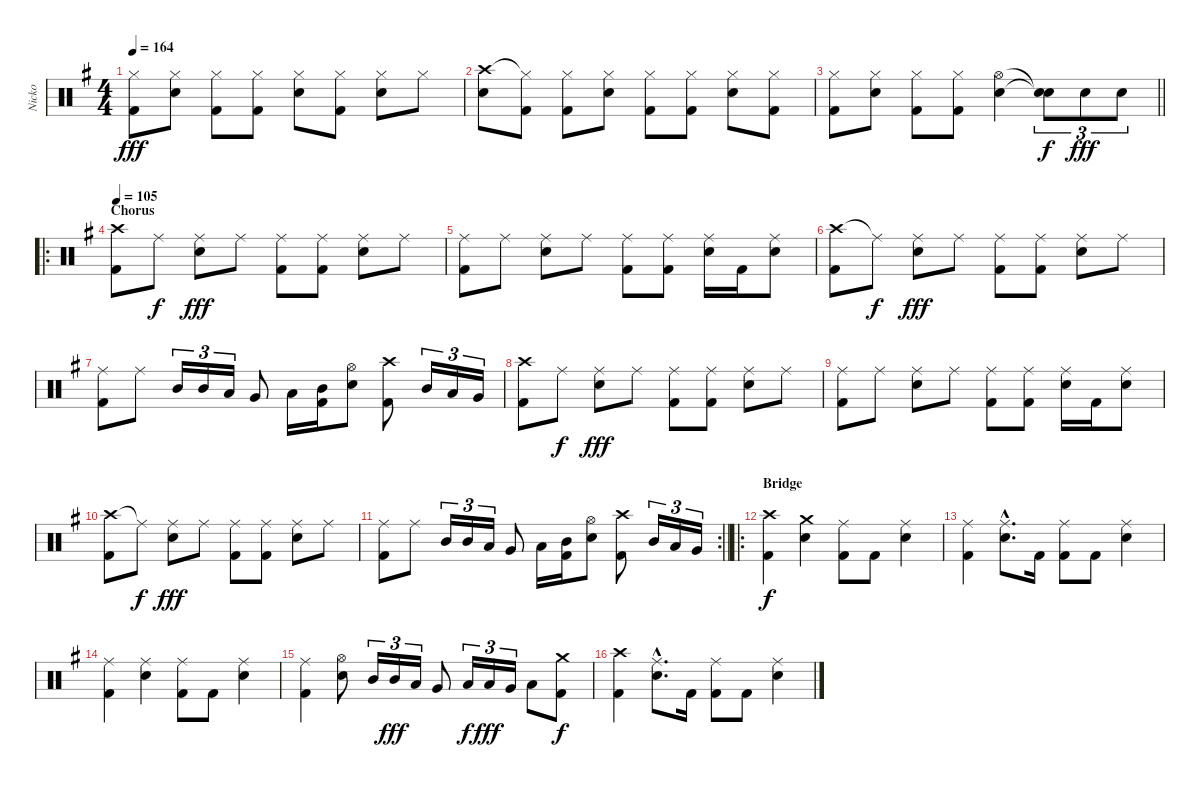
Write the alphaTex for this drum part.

\track ("Nicko" "Nicko") {instrument percussion}
\staff {score}
\articulation defaults
\ts (4 4)
\tempo 164
\clef neutral
\ks eminor
("Hi-Hat (closed)" "Kick (hit) 2").8{dy fff} ("Hi-Hat (closed)" "Snare (hit) 2").8 ("Hi-Hat (closed)" "Kick (hit) 2").8 ("Hi-Hat (closed)" "Kick (hit) 2").8 ("Hi-Hat (closed)" "Snare (hit) 2").8 ("Hi-Hat (closed)" "Kick (hit) 2").8 ("Hi-Hat (closed)" "Snare (hit) 2").8 "Hi-Hat (closed)".8 |
("Crash high (hit)" "Snare (hit) 2").8 ("Hi-Hat (closed)"{t} "Kick (hit) 2").8 ("Hi-Hat (closed)" "Kick (hit) 2").8 ("Hi-Hat (closed)" "Snare (hit) 2").8 ("Hi-Hat (closed)" "Kick (hit) 2").8 ("Hi-Hat (closed)" "Kick (hit) 2").8 ("Hi-Hat (closed)" "Snare (hit) 2").8 ("Hi-Hat (closed)" "Kick (hit) 2").8 |
\barLineRight lightlight
("Hi-Hat (closed)" "Kick (hit) 2").8 ("Hi-Hat (closed)" "Snare (hit) 2").8 ("Hi-Hat (closed)" "Kick (hit) 2").8 ("Hi-Hat (closed)" "Kick (hit) 2").8 ("Hi-Hat (open)" "Snare (hit) 2").4 ("Snare (hit)"{t} "Snare (hit)"{t}).8{tu (3 2) dy f} "Snare (hit) 2".8{tu (3 2) dy fff} "Snare (hit) 2".8{tu (3 2)} |
\ro
\section ("" "Chorus")
\tempo 105
("Crash high (hit)" "Kick (hit) 2").8 "Ride (middle)".8{dy f} ("Ride (middle)" "Snare (hit) 2").8{dy fff} "Ride (middle)".8 ("Ride (middle)" "Kick (hit) 2").8 ("Ride (middle)" "Kick (hit) 2").8 ("Ride (middle)" "Snare (hit) 2").8 "Ride (middle)".8 |
("Ride (middle)" "Kick (hit) 2").8 "Ride (middle)".8 ("Ride (middle)" "Snare (hit) 2").8 "Ride (middle)".8 ("Ride (middle)" "Kick (hit) 2").8 ("Ride (middle)" "Kick (hit) 2").8 ("Ride (middle)" "Snare (hit) 2").16 "Kick (hit) 2".16 ("Ride (middle)" "Snare (hit) 2").8 |
("Crash high (hit)" "Kick (hit) 2").8 "Ride (middle)"{t}.8{dy f} ("Ride (middle)" "Snare (hit) 2").8{dy fff} "Ride (middle)".8 ("Ride (middle)" "Kick (hit) 2").8 ("Ride (middle)" "Kick (hit) 2").8 ("Ride (middle)" "Snare (hit) 2").8 "Ride (middle)".8 |
("Ride (middle)" "Kick (hit) 2").8 "Ride (middle)".8 "Mid Tom (hit)".16{tu (3 2)} "Mid Tom (hit)".16{tu (3 2)} "Low Tom (hit)".16{tu (3 2)} "Very Low Tom (hit)".8 "Low Tom (hit)".16 ("Mid Tom (hit)" "Kick (hit) 2").16 ("Hi-Hat (open)" "Snare (hit) 2").8 ("Crash high (hit)" "Kick (hit) 2").8 "Mid Tom (hit)".16{tu (3 2)} "Low Tom (hit)".16{tu (3 2)} "Very Low Tom (hit)".16{tu (3 2)} |
("Crash high (hit)" "Kick (hit) 2").8 "Ride (middle)".8{dy f} ("Ride (middle)" "Snare (hit) 2").8{dy fff} "Ride (middle)".8 ("Ride (middle)" "Kick (hit) 2").8 ("Ride (middle)" "Kick (hit) 2").8 ("Ride (middle)" "Snare (hit) 2").8 "Ride (middle)".8 |
("Ride (middle)" "Kick (hit) 2").8 "Ride (middle)".8 ("Ride (middle)" "Snare (hit) 2").8 "Ride (middle)".8 ("Ride (middle)" "Kick (hit) 2").8 ("Ride (middle)" "Kick (hit) 2").8 ("Ride (middle)" "Snare (hit) 2").16 "Kick (hit) 2".16 ("Ride (middle)" "Snare (hit) 2").8 |
("Crash high (hit)" "Kick (hit) 2").8 "Ride (middle)"{t}.8{dy f} ("Ride (middle)" "Snare (hit) 2").8{dy fff} "Ride (middle)".8 ("Ride (middle)" "Kick (hit) 2").8 ("Ride (middle)" "Kick (hit) 2").8 ("Ride (middle)" "Snare (hit) 2").8 "Ride (middle)".8 |
\rc 2
\barLineRight lightlight
("Ride (middle)" "Kick (hit) 2").8 "Ride (middle)".8 "Mid Tom (hit)".16{tu (3 2)} "Mid Tom (hit)".16{tu (3 2)} "Low Tom (hit)".16{tu (3 2)} "Very Low Tom (hit)".8 "Low Tom (hit)".16 ("Mid Tom (hit)" "Kick (hit) 2").16 ("Hi-Hat (open)" "Snare (hit) 2").8 ("Crash high (hit)" "Kick (hit) 2").8 "Mid Tom (hit)".16{tu (3 2)} "Low Tom (hit)".16{tu (3 2)} "Very Low Tom (hit)".16{tu (3 2)} |
\ro
\section ("" "Bridge")
("Crash high (hit)" "Kick (hit) 2").4{dy f} ("Crash medium (hit)" "Snare (hit) 2").4 ("Ride (middle)" "Kick (hit) 2").8 "Kick (hit) 2".8 ("Ride (middle)" "Snare (hit) 2").4 |
("Ride (middle)" "Kick (hit) 2").4 ("Ride (middle)"{hac} "Snare (hit) 2"{hac}).8{d} "Kick (hit) 2".16 ("Ride (middle)" "Kick (hit) 2").8 "Kick (hit) 2".8 ("Ride (middle)" "Snare (hit) 2").4 |
("Ride (middle)" "Kick (hit) 2").4 ("Ride (middle)" "Snare (hit) 2").4 ("Ride (middle)" "Kick (hit) 2").8 "Kick (hit) 2".8 ("Ride (middle)" "Snare (hit) 2").4 |
("Ride (middle)" "Kick (hit) 2").4 ("Hi-Hat (open)" "Snare (hit) 2").8 "Mid Tom (hit)".16{tu (3 2)} "Mid Tom (hit)".16{tu (3 2) dy fff} "Low Tom (hit)".16{tu (3 2)} "Very Low Tom (hit)".8 "Low Tom (hit)".16{tu (3 2) dy f} "Low Tom (hit)".16{tu (3 2) dy fff} "Very Low Tom (hit)".16{tu (3 2)} "Low Floor Tom (hit)".8 ("Crash medium (hit)" "Kick (hit) 2").8{dy f} |
("Crash high (hit)" "Kick (hit) 2").4 ("Ride (middle)"{hac} "Snare (hit) 2"{hac}).8{d} "Kick (hit) 2".16 ("Ride (middle)" "Kick (hit) 2").8 "Kick (hit) 2".8 ("Ride (middle)" "Snare (hit) 2").4
